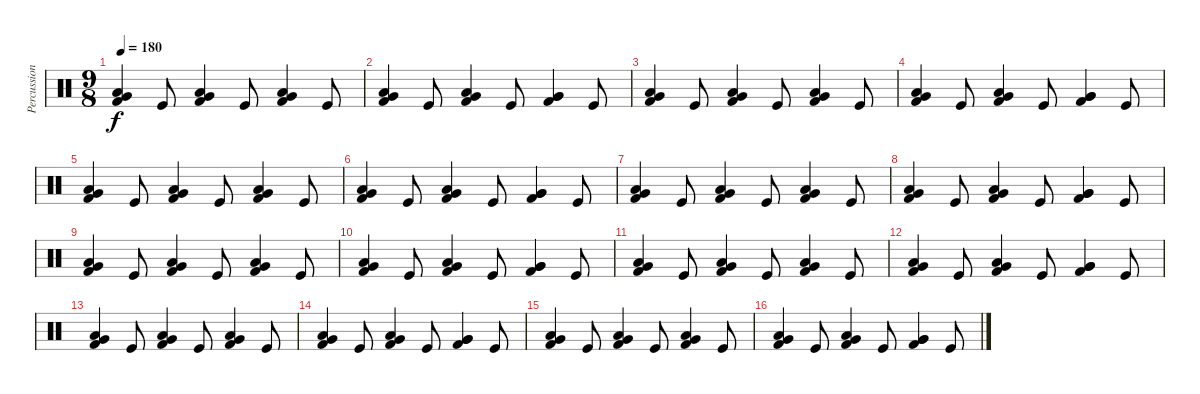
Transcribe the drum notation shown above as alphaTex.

\track ("Percussion" "Percussion") {instrument percussion}
\staff {score}
\articulation defaults
\ts (9 8)
\tempo 180
\clef neutral
\ks c
("Very Low Tom (hit)" "Kick (hit) 2" "Low Floor Tom (hit)").4{dy f} "Kick (hit)".8 ("Very Low Tom (hit)" "Kick (hit) 2" "Low Floor Tom (hit)").4 "Kick (hit)".8 ("Very Low Tom (hit)" "Kick (hit) 2" "Low Tom (hit)").4 "Kick (hit)".8 |
("Very Low Tom (hit)" "Kick (hit) 2" "Low Floor Tom (hit)").4 "Kick (hit)".8 ("Very Low Tom (hit)" "Kick (hit) 2" "Low Floor Tom (hit)").4 "Kick (hit)".8 ("Very Low Tom (hit)" "Kick (hit) 2" "Very Low Tom (hit)").4 "Kick (hit)".8 |
("Very Low Tom (hit)" "Kick (hit) 2" "Low Floor Tom (hit)").4 "Kick (hit)".8 ("Very Low Tom (hit)" "Kick (hit) 2" "Low Floor Tom (hit)").4 "Kick (hit)".8 ("Very Low Tom (hit)" "Kick (hit) 2" "Low Tom (hit)").4 "Kick (hit)".8 |
("Very Low Tom (hit)" "Kick (hit) 2" "Low Floor Tom (hit)").4 "Kick (hit)".8 ("Very Low Tom (hit)" "Kick (hit) 2" "Low Floor Tom (hit)").4 "Kick (hit)".8 ("Very Low Tom (hit)" "Kick (hit) 2" "Very Low Tom (hit)").4 "Kick (hit)".8 |
("Very Low Tom (hit)" "Kick (hit) 2" "Low Floor Tom (hit)").4 "Kick (hit)".8 ("Very Low Tom (hit)" "Kick (hit) 2" "Low Floor Tom (hit)").4 "Kick (hit)".8 ("Very Low Tom (hit)" "Kick (hit) 2" "Low Tom (hit)").4 "Kick (hit)".8 |
("Very Low Tom (hit)" "Kick (hit) 2" "Low Floor Tom (hit)").4 "Kick (hit)".8 ("Very Low Tom (hit)" "Kick (hit) 2" "Low Floor Tom (hit)").4 "Kick (hit)".8 ("Very Low Tom (hit)" "Kick (hit) 2" "Very Low Tom (hit)").4 "Kick (hit)".8 |
("Very Low Tom (hit)" "Kick (hit) 2" "Low Floor Tom (hit)").4 "Kick (hit)".8 ("Very Low Tom (hit)" "Kick (hit) 2" "Low Floor Tom (hit)").4 "Kick (hit)".8 ("Very Low Tom (hit)" "Kick (hit) 2" "Low Tom (hit)").4 "Kick (hit)".8 |
("Very Low Tom (hit)" "Kick (hit) 2" "Low Floor Tom (hit)").4 "Kick (hit)".8 ("Very Low Tom (hit)" "Kick (hit) 2" "Low Floor Tom (hit)").4 "Kick (hit)".8 ("Very Low Tom (hit)" "Kick (hit) 2" "Very Low Tom (hit)").4 "Kick (hit)".8 |
("Very Low Tom (hit)" "Kick (hit) 2" "Low Floor Tom (hit)").4 "Kick (hit)".8 ("Very Low Tom (hit)" "Kick (hit) 2" "Low Floor Tom (hit)").4 "Kick (hit)".8 ("Very Low Tom (hit)" "Kick (hit) 2" "Low Tom (hit)").4 "Kick (hit)".8 |
("Very Low Tom (hit)" "Kick (hit) 2" "Low Floor Tom (hit)").4 "Kick (hit)".8 ("Very Low Tom (hit)" "Kick (hit) 2" "Low Floor Tom (hit)").4 "Kick (hit)".8 ("Very Low Tom (hit)" "Kick (hit) 2" "Very Low Tom (hit)").4 "Kick (hit)".8 |
("Very Low Tom (hit)" "Kick (hit) 2" "Low Floor Tom (hit)").4 "Kick (hit)".8 ("Very Low Tom (hit)" "Kick (hit) 2" "Low Floor Tom (hit)").4 "Kick (hit)".8 ("Very Low Tom (hit)" "Kick (hit) 2" "Low Tom (hit)").4 "Kick (hit)".8 |
("Very Low Tom (hit)" "Kick (hit) 2" "Low Floor Tom (hit)").4 "Kick (hit)".8 ("Very Low Tom (hit)" "Kick (hit) 2" "Low Floor Tom (hit)").4 "Kick (hit)".8 ("Very Low Tom (hit)" "Kick (hit) 2" "Very Low Tom (hit)").4 "Kick (hit)".8 |
("Very Low Tom (hit)" "Kick (hit) 2" "Low Floor Tom (hit)").4 "Kick (hit)".8 ("Very Low Tom (hit)" "Kick (hit) 2" "Low Floor Tom (hit)").4 "Kick (hit)".8 ("Very Low Tom (hit)" "Kick (hit) 2" "Low Tom (hit)").4 "Kick (hit)".8 |
("Very Low Tom (hit)" "Kick (hit) 2" "Low Floor Tom (hit)").4 "Kick (hit)".8 ("Very Low Tom (hit)" "Kick (hit) 2" "Low Floor Tom (hit)").4 "Kick (hit)".8 ("Very Low Tom (hit)" "Kick (hit) 2" "Very Low Tom (hit)").4 "Kick (hit)".8 |
("Very Low Tom (hit)" "Kick (hit) 2" "Low Floor Tom (hit)").4 "Kick (hit)".8 ("Very Low Tom (hit)" "Kick (hit) 2" "Low Floor Tom (hit)").4 "Kick (hit)".8 ("Very Low Tom (hit)" "Kick (hit) 2" "Low Tom (hit)").4 "Kick (hit)".8 |
("Very Low Tom (hit)" "Kick (hit) 2" "Low Floor Tom (hit)").4 "Kick (hit)".8 ("Very Low Tom (hit)" "Kick (hit) 2" "Low Floor Tom (hit)").4 "Kick (hit)".8 ("Very Low Tom (hit)" "Kick (hit) 2" "Very Low Tom (hit)").4 "Kick (hit)".8
